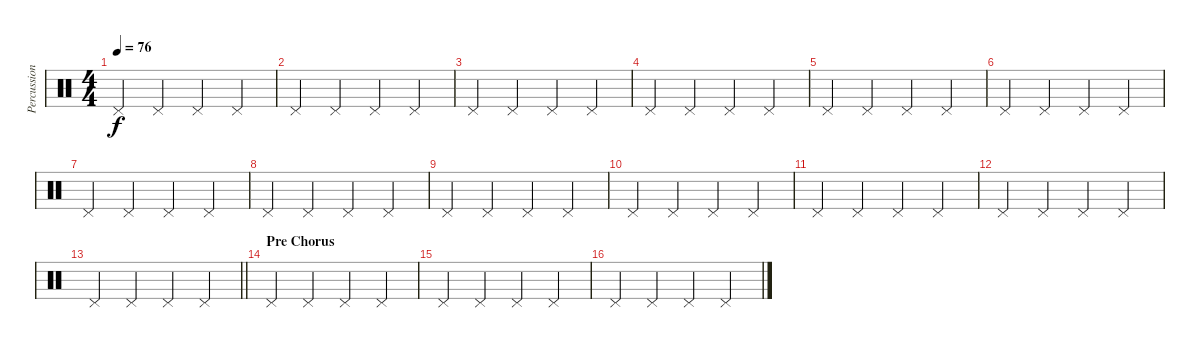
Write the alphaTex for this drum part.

\track ("Percussion" "Percussion") {instrument percussion}
\staff {score}
\articulation defaults
\ts (4 4)
\tempo 76
\clef neutral
\ks c "Pedal Hi-Hat (hit)".4{dy f beam merge} "Pedal Hi-Hat (hit)".4 "Pedal Hi-Hat (hit)".4 "Pedal Hi-Hat (hit)".4
|
"Pedal Hi-Hat (hit)".4{beam merge} "Pedal Hi-Hat (hit)".4 "Pedal Hi-Hat (hit)".4 "Pedal Hi-Hat (hit)".4 |
"Pedal Hi-Hat (hit)".4{beam merge} "Pedal Hi-Hat (hit)".4{beam merge} "Pedal Hi-Hat (hit)".4 "Pedal Hi-Hat (hit)".4 |
"Pedal Hi-Hat (hit)".4 "Pedal Hi-Hat (hit)".4 "Pedal Hi-Hat (hit)".4 "Pedal Hi-Hat (hit)".4 |
"Pedal Hi-Hat (hit)".4{beam merge} "Pedal Hi-Hat (hit)".4 "Pedal Hi-Hat (hit)".4 "Pedal Hi-Hat (hit)".4 |
"Pedal Hi-Hat (hit)".4{beam merge} "Pedal Hi-Hat (hit)".4 "Pedal Hi-Hat (hit)".4 "Pedal Hi-Hat (hit)".4 |
"Pedal Hi-Hat (hit)".4{beam merge} "Pedal Hi-Hat (hit)".4{beam merge} "Pedal Hi-Hat (hit)".4 "Pedal Hi-Hat (hit)".4 |
"Pedal Hi-Hat (hit)".4 "Pedal Hi-Hat (hit)".4 "Pedal Hi-Hat (hit)".4 "Pedal Hi-Hat (hit)".4 |
"Pedal Hi-Hat (hit)".4{beam merge} "Pedal Hi-Hat (hit)".4 "Pedal Hi-Hat (hit)".4 "Pedal Hi-Hat (hit)".4 |
"Pedal Hi-Hat (hit)".4{beam merge} "Pedal Hi-Hat (hit)".4 "Pedal Hi-Hat (hit)".4 "Pedal Hi-Hat (hit)".4 |
"Pedal Hi-Hat (hit)".4{beam merge} "Pedal Hi-Hat (hit)".4{beam merge} "Pedal Hi-Hat (hit)".4 "Pedal Hi-Hat (hit)".4 |
"Pedal Hi-Hat (hit)".4 "Pedal Hi-Hat (hit)".4 "Pedal Hi-Hat (hit)".4 "Pedal Hi-Hat (hit)".4 |
\barLineRight lightlight "Pedal Hi-Hat (hit)".4{beam merge} "Pedal Hi-Hat (hit)".4 "Pedal Hi-Hat (hit)".4 "Pedal Hi-Hat (hit)".4
|
\section ("" "Pre Chorus")
"Pedal Hi-Hat (hit)".4{beam merge} "Pedal Hi-Hat (hit)".4 "Pedal Hi-Hat (hit)".4 "Pedal Hi-Hat (hit)".4 |
"Pedal Hi-Hat (hit)".4{beam merge} "Pedal Hi-Hat (hit)".4{beam merge} "Pedal Hi-Hat (hit)".4 "Pedal Hi-Hat (hit)".4 |
"Pedal Hi-Hat (hit)".4 "Pedal Hi-Hat (hit)".4 "Pedal Hi-Hat (hit)".4 "Pedal Hi-Hat (hit)".4
